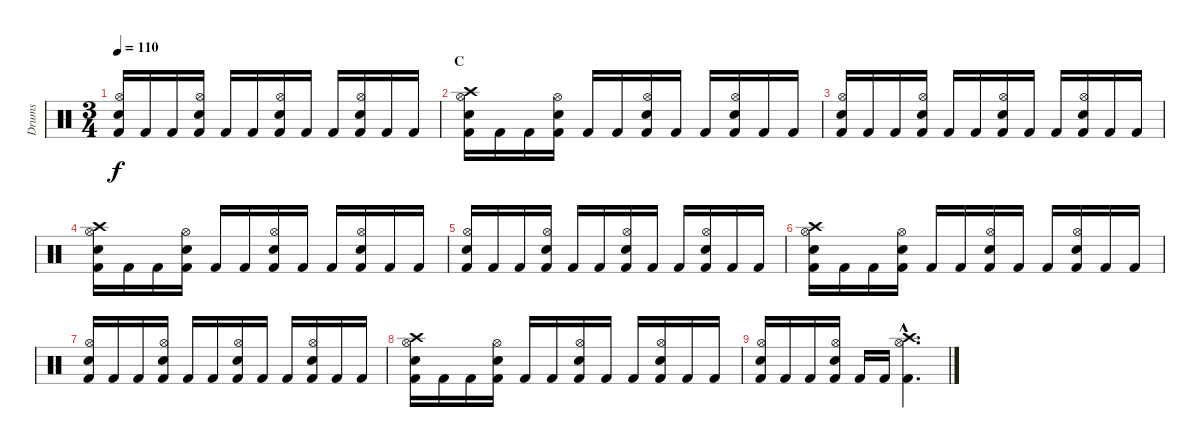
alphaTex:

\track ("Drums" "Drums") {instrument percussion}
\staff {score}
\articulation defaults
\ts (3 4)
\tempo 110
\clef neutral
\ks c
("Kick (hit) 2" "Hi-Hat (open)" "Electric Snare (hit)").16{dy f} "Kick (hit) 2".16 "Kick (hit) 2".16 ("Kick (hit) 2" "Electric Snare (hit)" "Hi-Hat (open)").16 "Kick (hit) 2".16 "Kick (hit) 2".16 ("Kick (hit) 2" "Hi-Hat (open)" "Electric Snare (hit)").16 "Kick (hit) 2".16 "Kick (hit) 2".16 ("Kick (hit) 2" "Electric Snare (hit)" "Hi-Hat (open)").16 "Kick (hit) 2".16 "Kick (hit) 2".16 |
\section ("" "C")
("Kick (hit) 2" "Hi-Hat (open)" "Electric Snare (hit)" "Crash high (hit)").16 "Kick (hit) 2".16 "Kick (hit) 2".16 ("Kick (hit) 2" "Electric Snare (hit)" "Hi-Hat (open)").16 "Kick (hit) 2".16 "Kick (hit) 2".16 ("Kick (hit) 2" "Hi-Hat (open)" "Electric Snare (hit)").16 "Kick (hit) 2".16 "Kick (hit) 2".16 ("Kick (hit) 2" "Electric Snare (hit)" "Hi-Hat (open)").16 "Kick (hit) 2".16 "Kick (hit) 2".16 |
("Kick (hit) 2" "Hi-Hat (open)" "Electric Snare (hit)").16 "Kick (hit) 2".16 "Kick (hit) 2".16 ("Kick (hit) 2" "Electric Snare (hit)" "Hi-Hat (open)").16 "Kick (hit) 2".16 "Kick (hit) 2".16 ("Kick (hit) 2" "Hi-Hat (open)" "Electric Snare (hit)").16 "Kick (hit) 2".16 "Kick (hit) 2".16 ("Kick (hit) 2" "Electric Snare (hit)" "Hi-Hat (open)").16 "Kick (hit) 2".16 "Kick (hit) 2".16 |
("Kick (hit) 2" "Hi-Hat (open)" "Electric Snare (hit)" "Crash high (hit)").16 "Kick (hit) 2".16 "Kick (hit) 2".16 ("Kick (hit) 2" "Electric Snare (hit)" "Hi-Hat (open)").16 "Kick (hit) 2".16 "Kick (hit) 2".16 ("Kick (hit) 2" "Hi-Hat (open)" "Electric Snare (hit)").16 "Kick (hit) 2".16 "Kick (hit) 2".16 ("Kick (hit) 2" "Electric Snare (hit)" "Hi-Hat (open)").16 "Kick (hit) 2".16 "Kick (hit) 2".16 |
("Kick (hit) 2" "Hi-Hat (open)" "Electric Snare (hit)").16 "Kick (hit) 2".16 "Kick (hit) 2".16 ("Kick (hit) 2" "Electric Snare (hit)" "Hi-Hat (open)").16 "Kick (hit) 2".16 "Kick (hit) 2".16 ("Kick (hit) 2" "Hi-Hat (open)" "Electric Snare (hit)").16 "Kick (hit) 2".16 "Kick (hit) 2".16 ("Kick (hit) 2" "Electric Snare (hit)" "Hi-Hat (open)").16 "Kick (hit) 2".16 "Kick (hit) 2".16 |
("Kick (hit) 2" "Hi-Hat (open)" "Electric Snare (hit)" "Crash high (hit)").16 "Kick (hit) 2".16 "Kick (hit) 2".16 ("Kick (hit) 2" "Electric Snare (hit)" "Hi-Hat (open)").16 "Kick (hit) 2".16 "Kick (hit) 2".16 ("Kick (hit) 2" "Hi-Hat (open)" "Electric Snare (hit)").16 "Kick (hit) 2".16 "Kick (hit) 2".16 ("Kick (hit) 2" "Electric Snare (hit)" "Hi-Hat (open)").16 "Kick (hit) 2".16 "Kick (hit) 2".16 |
("Kick (hit) 2" "Hi-Hat (open)" "Electric Snare (hit)").16 "Kick (hit) 2".16 "Kick (hit) 2".16 ("Kick (hit) 2" "Electric Snare (hit)" "Hi-Hat (open)").16 "Kick (hit) 2".16 "Kick (hit) 2".16 ("Kick (hit) 2" "Hi-Hat (open)" "Electric Snare (hit)").16 "Kick (hit) 2".16 "Kick (hit) 2".16 ("Kick (hit) 2" "Electric Snare (hit)" "Hi-Hat (open)").16 "Kick (hit) 2".16 "Kick (hit) 2".16 |
("Kick (hit) 2" "Hi-Hat (open)" "Electric Snare (hit)" "Crash high (hit)").16 "Kick (hit) 2".16 "Kick (hit) 2".16 ("Kick (hit) 2" "Electric Snare (hit)" "Hi-Hat (open)").16 "Kick (hit) 2".16 "Kick (hit) 2".16 ("Kick (hit) 2" "Hi-Hat (open)" "Electric Snare (hit)").16 "Kick (hit) 2".16 "Kick (hit) 2".16 ("Kick (hit) 2" "Electric Snare (hit)" "Hi-Hat (open)").16 "Kick (hit) 2".16 "Kick (hit) 2".16 |
("Kick (hit) 2" "Hi-Hat (open)" "Electric Snare (hit)").16 "Kick (hit) 2".16 "Kick (hit) 2".16 ("Kick (hit) 2" "Electric Snare (hit)" "Hi-Hat (open)").16 "Kick (hit) 2".16 "Kick (hit) 2".16 ("Kick (hit) 2"{hac} "Hi-Hat (open)"{hac} "Crash high (hit)"{hac}).4{d}
